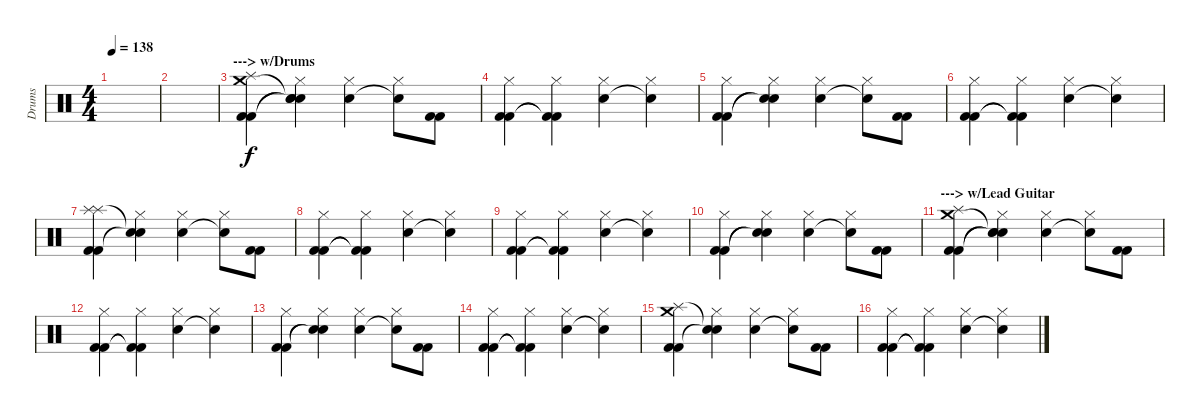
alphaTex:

\track ("Drums" "Drums") {instrument percussion}
\staff {score}
\articulation defaults
\ts (4 4)
\tempo 138
\clef neutral
\ks c
|
|
\section ("" "---> w/Drums")
("Splash (hit)" "Crash medium (hit)" "Kick (hit) 2" "Kick (hit) 2").4 ("Hi-Hat (closed)" "Snare (hit)"{t} "Snare (hit)"{t} "Snare (hit)"{t}).4 ("Hi-Hat (closed)" "Snare (hit) 2").4 ("Hi-Hat (closed)" "Snare (hit)"{t}).8 ("Kick (hit) 2" "Kick (hit) 2").8 |
("Hi-Hat (closed)" "Kick (hit) 2" "Kick (hit) 2").4 ("Hi-Hat (closed)" "Kick (hit) 2"{t} "Kick (hit) 2"{t}).4 ("Hi-Hat (closed)" "Snare (hit) 2").4 ("Hi-Hat (closed)" "Snare (hit)"{t}).4 |
("Hi-Hat (closed)" "Kick (hit) 2" "Kick (hit) 2").4 ("Hi-Hat (closed)" "Snare (hit)"{t} "Snare (hit)"{t}).4 ("Hi-Hat (closed)" "Snare (hit) 2").4 ("Hi-Hat (closed)" "Snare (hit)"{t}).8 ("Kick (hit) 2" "Kick (hit) 2").8 |
("Hi-Hat (closed)" "Kick (hit) 2" "Kick (hit) 2").4 ("Hi-Hat (closed)" "Kick (hit) 2"{t} "Kick (hit) 2"{t}).4 ("Hi-Hat (closed)" "Snare (hit) 2").4 ("Hi-Hat (closed)" "Snare (hit)"{t}).4 |
("Splash (hit)" "Splash (hit)" "Kick (hit) 2" "Kick (hit) 2").4 ("Hi-Hat (closed)" "Snare (hit)"{t} "Snare (hit)"{t}).4 ("Hi-Hat (closed)" "Snare (hit) 2").4 ("Hi-Hat (closed)" "Snare (hit)"{t}).8 ("Kick (hit) 2" "Kick (hit) 2").8 |
("Hi-Hat (closed)" "Kick (hit) 2" "Kick (hit) 2").4 ("Hi-Hat (closed)" "Kick (hit) 2"{t} "Kick (hit) 2"{t}).4 ("Hi-Hat (closed)" "Snare (hit) 2").4 ("Hi-Hat (closed)" "Snare (hit)"{t}).4 |
("Hi-Hat (closed)" "Kick (hit) 2" "Kick (hit) 2").4 ("Hi-Hat (closed)" "Kick (hit) 2"{t} "Kick (hit) 2"{t}).4 ("Hi-Hat (closed)" "Snare (hit) 2").4 ("Hi-Hat (closed)" "Snare (hit)"{t}).4 |
("Hi-Hat (closed)" "Kick (hit) 2" "Kick (hit) 2").4 ("Hi-Hat (closed)" "Snare (hit)"{t} "Snare (hit)"{t}).4 ("Hi-Hat (closed)" "Snare (hit) 2").4 ("Hi-Hat (closed)" "Snare (hit)"{t}).8 ("Kick (hit) 2" "Kick (hit) 2").8 |
\section ("" "---> w/Lead Guitar")
("Splash (hit)" "Crash medium (hit)" "Kick (hit) 2" "Kick (hit) 2").4 ("Hi-Hat (closed)" "Snare (hit)"{t} "Snare (hit)"{t} "Snare (hit)"{t}).4 ("Hi-Hat (closed)" "Snare (hit) 2").4 ("Hi-Hat (closed)" "Snare (hit)"{t}).8 ("Kick (hit) 2" "Kick (hit) 2").8 |
("Hi-Hat (closed)" "Kick (hit) 2" "Kick (hit) 2").4 ("Hi-Hat (closed)" "Kick (hit) 2"{t} "Kick (hit) 2"{t}).4 ("Hi-Hat (closed)" "Snare (hit) 2").4 ("Hi-Hat (closed)" "Snare (hit)"{t}).4 |
("Hi-Hat (closed)" "Kick (hit) 2" "Kick (hit) 2").4 ("Hi-Hat (closed)" "Snare (hit)"{t} "Snare (hit)"{t}).4 ("Hi-Hat (closed)" "Snare (hit) 2").4 ("Hi-Hat (closed)" "Snare (hit)"{t}).8 ("Kick (hit) 2" "Kick (hit) 2").8 |
("Hi-Hat (closed)" "Kick (hit) 2" "Kick (hit) 2").4 ("Hi-Hat (closed)" "Kick (hit) 2"{t} "Kick (hit) 2"{t}).4 ("Hi-Hat (closed)" "Snare (hit) 2").4 ("Hi-Hat (closed)" "Snare (hit)"{t}).4 |
("Crash medium (hit)" "Splash (hit)" "Kick (hit) 2" "Kick (hit) 2").4 ("Hi-Hat (closed)" "Snare (hit)"{t} "Snare (hit)"{t}).4 ("Hi-Hat (closed)" "Snare (hit) 2").4 ("Hi-Hat (closed)" "Snare (hit)"{t}).8 ("Kick (hit) 2" "Kick (hit) 2").8 |
("Hi-Hat (closed)" "Kick (hit) 2" "Kick (hit) 2").4 ("Hi-Hat (closed)" "Kick (hit) 2"{t} "Kick (hit) 2"{t}).4 ("Hi-Hat (closed)" "Snare (hit) 2").4 ("Hi-Hat (closed)" "Snare (hit)"{t}).4
